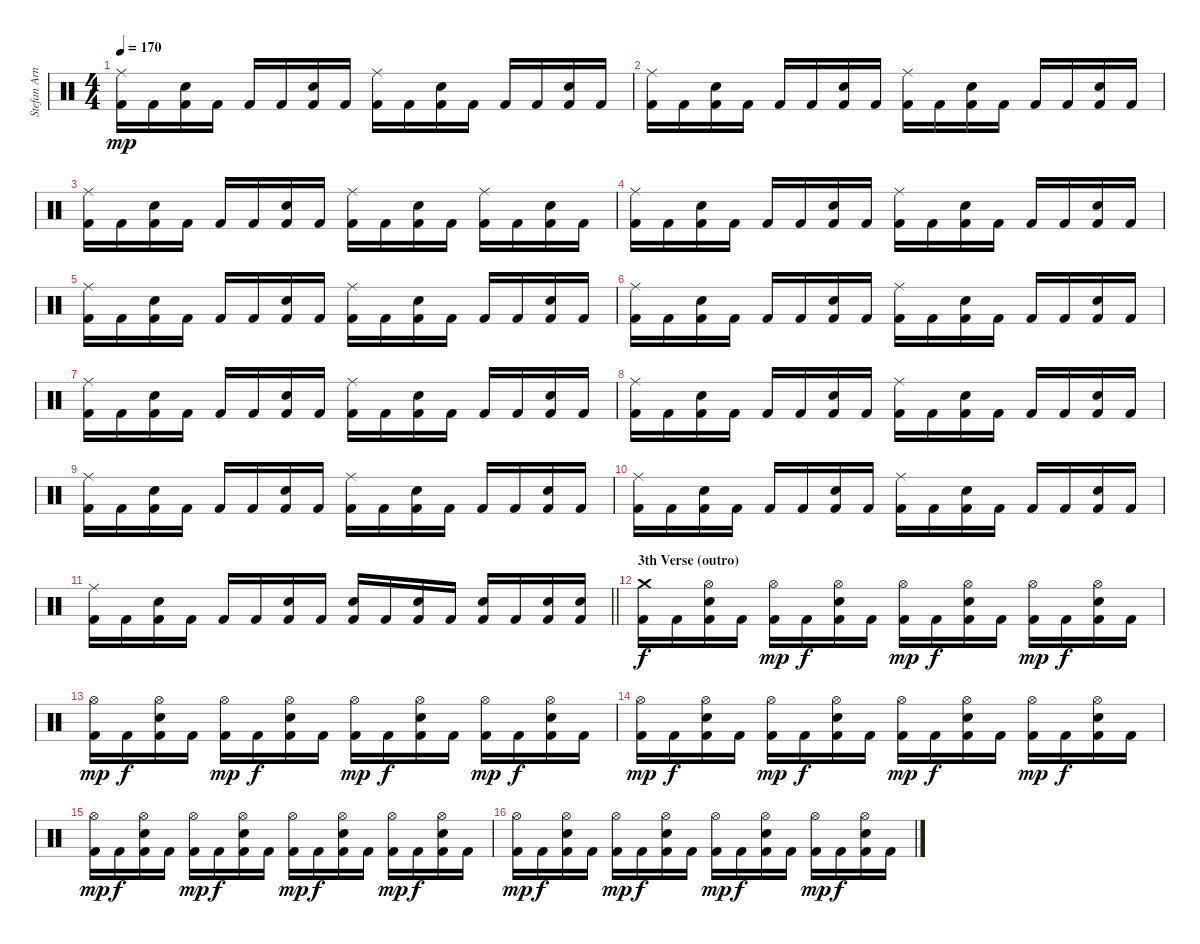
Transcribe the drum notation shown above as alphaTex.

\track ("Stefan Arnold" "Stefan Arn") {instrument percussion}
\staff {score}
\articulation defaults
\ts (4 4)
\tempo 170
\clef neutral
\ks c
("Ride (middle)" "Kick (hit) 2").16{dy mp} "Kick (hit) 2".16 ("Electric Snare (hit)" "Kick (hit) 2").16 "Kick (hit) 2".16 "Kick (hit) 2".16 "Kick (hit) 2".16 ("Electric Snare (hit)" "Kick (hit) 2").16 "Kick (hit) 2".16 ("Ride (middle)" "Kick (hit) 2").16 "Kick (hit) 2".16 ("Electric Snare (hit)" "Kick (hit) 2").16 "Kick (hit) 2".16 "Kick (hit) 2".16 "Kick (hit) 2".16 ("Electric Snare (hit)" "Kick (hit) 2").16 "Kick (hit) 2".16 |
("Ride (middle)" "Kick (hit) 2").16 "Kick (hit) 2".16 ("Electric Snare (hit)" "Kick (hit) 2").16 "Kick (hit) 2".16 "Kick (hit) 2".16 "Kick (hit) 2".16 ("Electric Snare (hit)" "Kick (hit) 2").16 "Kick (hit) 2".16 ("Ride (middle)" "Kick (hit) 2").16 "Kick (hit) 2".16 ("Electric Snare (hit)" "Kick (hit) 2").16 "Kick (hit) 2".16 "Kick (hit) 2".16 "Kick (hit) 2".16 ("Electric Snare (hit)" "Kick (hit) 2").16 "Kick (hit) 2".16 |
("Ride (middle)" "Kick (hit) 2").16 "Kick (hit) 2".16 ("Electric Snare (hit)" "Kick (hit) 2").16 "Kick (hit) 2".16 "Kick (hit) 2".16 "Kick (hit) 2".16 ("Electric Snare (hit)" "Kick (hit) 2").16 "Kick (hit) 2".16 ("Ride (middle)" "Kick (hit) 2").16 "Kick (hit) 2".16 ("Electric Snare (hit)" "Kick (hit) 2").16 "Kick (hit) 2".16 ("Ride (middle)" "Kick (hit) 2").16 "Kick (hit) 2".16 ("Electric Snare (hit)" "Kick (hit) 2").16 "Kick (hit) 2".16 |
("Ride (middle)" "Kick (hit) 2").16 "Kick (hit) 2".16 ("Electric Snare (hit)" "Kick (hit) 2").16 "Kick (hit) 2".16 "Kick (hit) 2".16 "Kick (hit) 2".16 ("Electric Snare (hit)" "Kick (hit) 2").16 "Kick (hit) 2".16 ("Ride (middle)" "Kick (hit) 2").16 "Kick (hit) 2".16 ("Electric Snare (hit)" "Kick (hit) 2").16 "Kick (hit) 2".16 "Kick (hit) 2".16 "Kick (hit) 2".16 ("Electric Snare (hit)" "Kick (hit) 2").16 "Kick (hit) 2".16 |
("Ride (middle)" "Kick (hit) 2").16 "Kick (hit) 2".16 ("Electric Snare (hit)" "Kick (hit) 2").16 "Kick (hit) 2".16 "Kick (hit) 2".16 "Kick (hit) 2".16 ("Electric Snare (hit)" "Kick (hit) 2").16 "Kick (hit) 2".16 ("Ride (middle)" "Kick (hit) 2").16 "Kick (hit) 2".16 ("Electric Snare (hit)" "Kick (hit) 2").16 "Kick (hit) 2".16 "Kick (hit) 2".16 "Kick (hit) 2".16 ("Electric Snare (hit)" "Kick (hit) 2").16 "Kick (hit) 2".16 |
("Ride (middle)" "Kick (hit) 2").16 "Kick (hit) 2".16 ("Electric Snare (hit)" "Kick (hit) 2").16 "Kick (hit) 2".16 "Kick (hit) 2".16 "Kick (hit) 2".16 ("Electric Snare (hit)" "Kick (hit) 2").16 "Kick (hit) 2".16 ("Ride (middle)" "Kick (hit) 2").16 "Kick (hit) 2".16 ("Electric Snare (hit)" "Kick (hit) 2").16 "Kick (hit) 2".16 "Kick (hit) 2".16 "Kick (hit) 2".16 ("Electric Snare (hit)" "Kick (hit) 2").16 "Kick (hit) 2".16 |
("Ride (middle)" "Kick (hit) 2").16 "Kick (hit) 2".16 ("Electric Snare (hit)" "Kick (hit) 2").16 "Kick (hit) 2".16 "Kick (hit) 2".16 "Kick (hit) 2".16 ("Electric Snare (hit)" "Kick (hit) 2").16 "Kick (hit) 2".16 ("Ride (middle)" "Kick (hit) 2").16 "Kick (hit) 2".16 ("Electric Snare (hit)" "Kick (hit) 2").16 "Kick (hit) 2".16 "Kick (hit) 2".16 "Kick (hit) 2".16 ("Electric Snare (hit)" "Kick (hit) 2").16 "Kick (hit) 2".16 |
("Ride (middle)" "Kick (hit) 2").16 "Kick (hit) 2".16 ("Electric Snare (hit)" "Kick (hit) 2").16 "Kick (hit) 2".16 "Kick (hit) 2".16 "Kick (hit) 2".16 ("Electric Snare (hit)" "Kick (hit) 2").16 "Kick (hit) 2".16 ("Ride (middle)" "Kick (hit) 2").16 "Kick (hit) 2".16 ("Electric Snare (hit)" "Kick (hit) 2").16 "Kick (hit) 2".16 "Kick (hit) 2".16 "Kick (hit) 2".16 ("Electric Snare (hit)" "Kick (hit) 2").16 "Kick (hit) 2".16 |
("Ride (middle)" "Kick (hit) 2").16 "Kick (hit) 2".16 ("Electric Snare (hit)" "Kick (hit) 2").16 "Kick (hit) 2".16 "Kick (hit) 2".16 "Kick (hit) 2".16 ("Electric Snare (hit)" "Kick (hit) 2").16 "Kick (hit) 2".16 ("Ride (middle)" "Kick (hit) 2").16 "Kick (hit) 2".16 ("Electric Snare (hit)" "Kick (hit) 2").16 "Kick (hit) 2".16 "Kick (hit) 2".16 "Kick (hit) 2".16 ("Electric Snare (hit)" "Kick (hit) 2").16 "Kick (hit) 2".16 |
("Ride (middle)" "Kick (hit) 2").16 "Kick (hit) 2".16 ("Electric Snare (hit)" "Kick (hit) 2").16 "Kick (hit) 2".16 "Kick (hit) 2".16 "Kick (hit) 2".16 ("Electric Snare (hit)" "Kick (hit) 2").16 "Kick (hit) 2".16 ("Ride (middle)" "Kick (hit) 2").16 "Kick (hit) 2".16 ("Electric Snare (hit)" "Kick (hit) 2").16 "Kick (hit) 2".16 "Kick (hit) 2".16 "Kick (hit) 2".16 ("Electric Snare (hit)" "Kick (hit) 2").16 "Kick (hit) 2".16 |
\barLineRight lightlight
("Ride (middle)" "Kick (hit) 2").16 "Kick (hit) 2".16 ("Electric Snare (hit)" "Kick (hit) 2").16 "Kick (hit) 2".16 "Kick (hit) 2".16 "Kick (hit) 2".16 ("Electric Snare (hit)" "Kick (hit) 2").16 "Kick (hit) 2".16 ("Electric Snare (hit)" "Kick (hit) 2").16 "Kick (hit) 2".16 ("Electric Snare (hit)" "Kick (hit) 2").16 "Kick (hit) 2".16 ("Electric Snare (hit)" "Kick (hit) 2").16 "Kick (hit) 2".16 ("Electric Snare (hit)" "Kick (hit) 2").16 ("Electric Snare (hit)" "Kick (hit) 2").16 |
\section ("" "3th Verse (outro)")
("Crash medium (hit)" "Kick (hit) 2").16{dy f} "Kick (hit) 2".16 ("Hi-Hat (open)" "Electric Snare (hit)" "Kick (hit) 2").16 "Kick (hit) 2".16 ("Hi-Hat (open)" "Kick (hit) 2").16{dy mp} "Kick (hit) 2".16{dy f} ("Hi-Hat (open)" "Electric Snare (hit)" "Kick (hit) 2").16 "Kick (hit) 2".16 ("Hi-Hat (open)" "Kick (hit) 2").16{dy mp} "Kick (hit) 2".16{dy f} ("Hi-Hat (open)" "Electric Snare (hit)" "Kick (hit) 2").16 "Kick (hit) 2".16 ("Hi-Hat (open)" "Kick (hit) 2").16{dy mp} "Kick (hit) 2".16{dy f} ("Hi-Hat (open)" "Electric Snare (hit)" "Kick (hit) 2").16 "Kick (hit) 2".16 |
("Hi-Hat (open)" "Kick (hit) 2").16{dy mp} "Kick (hit) 2".16{dy f} ("Hi-Hat (open)" "Electric Snare (hit)" "Kick (hit) 2").16 "Kick (hit) 2".16 ("Hi-Hat (open)" "Kick (hit) 2").16{dy mp} "Kick (hit) 2".16{dy f} ("Hi-Hat (open)" "Electric Snare (hit)" "Kick (hit) 2").16 "Kick (hit) 2".16 ("Hi-Hat (open)" "Kick (hit) 2").16{dy mp} "Kick (hit) 2".16{dy f} ("Hi-Hat (open)" "Electric Snare (hit)" "Kick (hit) 2").16 "Kick (hit) 2".16 ("Hi-Hat (open)" "Kick (hit) 2").16{dy mp} "Kick (hit) 2".16{dy f} ("Hi-Hat (open)" "Electric Snare (hit)" "Kick (hit) 2").16 "Kick (hit) 2".16 |
("Hi-Hat (open)" "Kick (hit) 2").16{dy mp} "Kick (hit) 2".16{dy f} ("Hi-Hat (open)" "Electric Snare (hit)" "Kick (hit) 2").16 "Kick (hit) 2".16 ("Hi-Hat (open)" "Kick (hit) 2").16{dy mp} "Kick (hit) 2".16{dy f} ("Hi-Hat (open)" "Electric Snare (hit)" "Kick (hit) 2").16 "Kick (hit) 2".16 ("Hi-Hat (open)" "Kick (hit) 2").16{dy mp} "Kick (hit) 2".16{dy f} ("Hi-Hat (open)" "Electric Snare (hit)" "Kick (hit) 2").16 "Kick (hit) 2".16 ("Hi-Hat (open)" "Kick (hit) 2").16{dy mp} "Kick (hit) 2".16{dy f} ("Hi-Hat (open)" "Electric Snare (hit)" "Kick (hit) 2").16 "Kick (hit) 2".16 |
("Hi-Hat (open)" "Kick (hit) 2").16{dy mp} "Kick (hit) 2".16{dy f} ("Hi-Hat (open)" "Electric Snare (hit)" "Kick (hit) 2").16 "Kick (hit) 2".16 ("Hi-Hat (open)" "Kick (hit) 2").16{dy mp} "Kick (hit) 2".16{dy f} ("Hi-Hat (open)" "Electric Snare (hit)" "Kick (hit) 2").16 "Kick (hit) 2".16 ("Hi-Hat (open)" "Kick (hit) 2").16{dy mp} "Kick (hit) 2".16{dy f} ("Hi-Hat (open)" "Electric Snare (hit)" "Kick (hit) 2").16 "Kick (hit) 2".16 ("Hi-Hat (open)" "Kick (hit) 2").16{dy mp} "Kick (hit) 2".16{dy f} ("Hi-Hat (open)" "Electric Snare (hit)" "Kick (hit) 2").16 "Kick (hit) 2".16 |
("Hi-Hat (open)" "Kick (hit) 2").16{dy mp} "Kick (hit) 2".16{dy f} ("Hi-Hat (open)" "Electric Snare (hit)" "Kick (hit) 2").16 "Kick (hit) 2".16 ("Hi-Hat (open)" "Kick (hit) 2").16{dy mp} "Kick (hit) 2".16{dy f} ("Hi-Hat (open)" "Electric Snare (hit)" "Kick (hit) 2").16 "Kick (hit) 2".16 ("Hi-Hat (open)" "Kick (hit) 2").16{dy mp} "Kick (hit) 2".16{dy f} ("Hi-Hat (open)" "Electric Snare (hit)" "Kick (hit) 2").16 "Kick (hit) 2".16 ("Hi-Hat (open)" "Kick (hit) 2").16{dy mp} "Kick (hit) 2".16{dy f} ("Hi-Hat (open)" "Electric Snare (hit)" "Kick (hit) 2").16 "Kick (hit) 2".16
